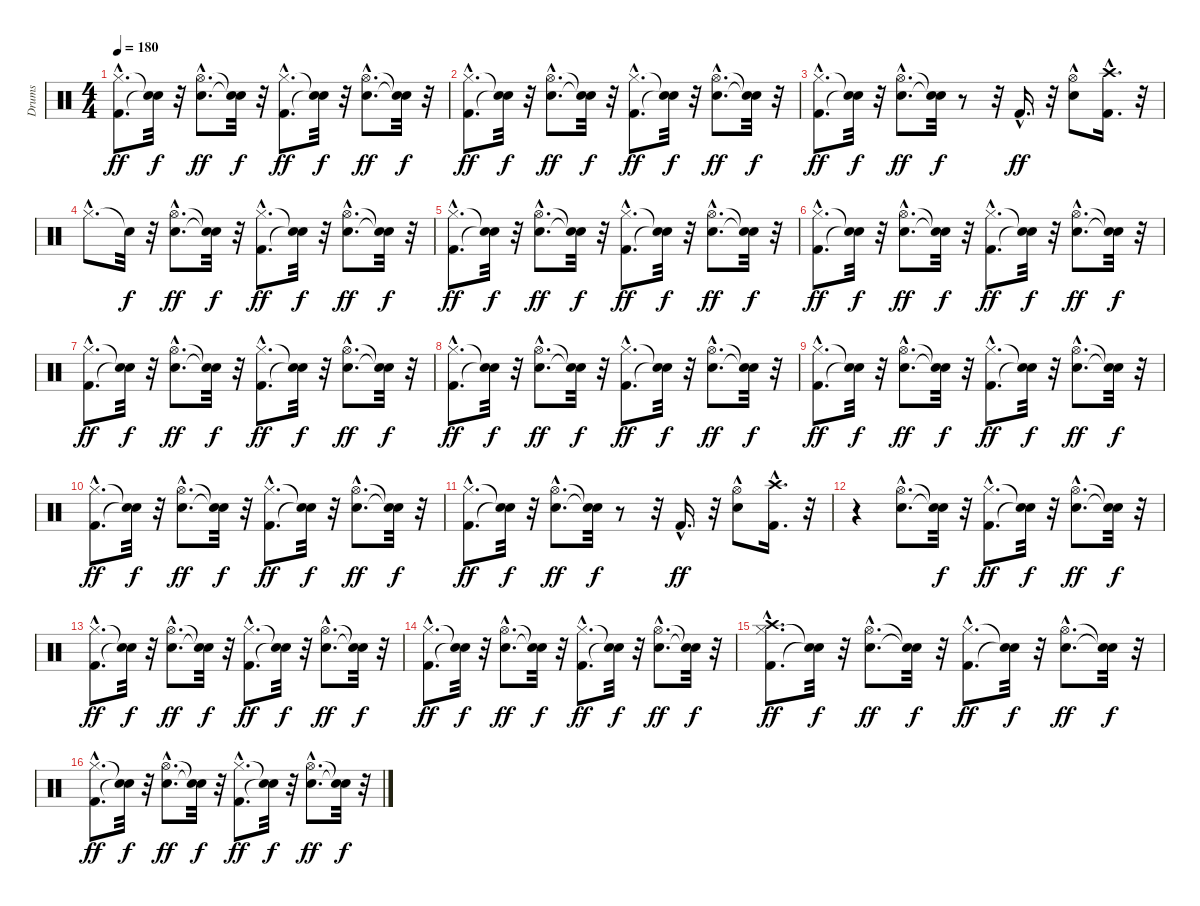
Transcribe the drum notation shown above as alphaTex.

\track ("Drums" "Drums") {instrument percussion}
\staff {score}
\articulation defaults
\ts (4 4)
\tempo 180
\clef neutral
\ks c
("Kick (hit) 2"{hac} "Hi-Hat (closed)"{hac}).8{d dy ff} ("Snare (hit)"{t} "Snare (hit)"{t}).32{dy f} r.32 ("Snare (hit) 2"{hac} "Hi-Hat (open)"{hac}).8{d dy ff} ("Snare (hit)"{t} "Snare (hit)"{t}).32{dy f} r.32 ("Kick (hit) 2"{hac} "Hi-Hat (closed)"{hac}).8{d dy ff} ("Snare (hit)"{t} "Snare (hit)"{t}).32{dy f} r.32 ("Snare (hit) 2"{hac} "Hi-Hat (open)"{hac}).8{d dy ff} ("Snare (hit)"{t} "Snare (hit)"{t}).32{dy f} r.32 |
("Kick (hit) 2"{hac} "Hi-Hat (closed)"{hac}).8{d dy ff} ("Snare (hit)"{t} "Snare (hit)"{t}).32{dy f} r.32 ("Snare (hit) 2"{hac} "Hi-Hat (open)"{hac}).8{d dy ff} ("Snare (hit)"{t} "Snare (hit)"{t}).32{dy f} r.32 ("Kick (hit) 2"{hac} "Hi-Hat (closed)"{hac}).8{d dy ff} ("Snare (hit)"{t} "Snare (hit)"{t}).32{dy f} r.32 ("Snare (hit) 2"{hac} "Hi-Hat (open)"{hac}).8{d dy ff} ("Snare (hit)"{t} "Snare (hit)"{t}).32{dy f} r.32 |
("Kick (hit) 2"{hac} "Hi-Hat (closed)"{hac}).8{d dy ff} ("Snare (hit)"{t} "Snare (hit)"{t}).32{dy f} r.32 ("Snare (hit) 2"{hac} "Hi-Hat (open)"{hac}).8{d dy ff} ("Snare (hit)"{t} "Snare (hit)"{t}).32{dy f} r.8 r.32 "Kick (hit) 2"{hac}.16{d dy ff} r.32 ("Snare (hit) 2"{hac} "Hi-Hat (open)"{hac}).8 ("Kick (hit) 2"{hac} "Crash high (hit)"{hac}).16{d} r.32 |
"Hi-Hat (closed)"{hac}.8{d} "Snare (hit)"{t}.32{dy f} r.32 ("Snare (hit) 2"{hac} "Hi-Hat (open)"{hac}).8{d dy ff} ("Snare (hit)"{t} "Snare (hit)"{t}).32{dy f} r.32 ("Kick (hit) 2"{hac} "Hi-Hat (closed)"{hac}).8{d dy ff} ("Snare (hit)"{t} "Snare (hit)"{t}).32{dy f} r.32 ("Snare (hit) 2"{hac} "Hi-Hat (open)"{hac}).8{d dy ff} ("Snare (hit)"{t} "Snare (hit)"{t}).32{dy f} r.32 |
("Kick (hit) 2"{hac} "Hi-Hat (closed)"{hac}).8{d dy ff} ("Snare (hit)"{t} "Snare (hit)"{t}).32{dy f} r.32 ("Snare (hit) 2"{hac} "Hi-Hat (open)"{hac}).8{d dy ff} ("Snare (hit)"{t} "Snare (hit)"{t}).32{dy f} r.32 ("Kick (hit) 2"{hac} "Hi-Hat (closed)"{hac}).8{d dy ff} ("Snare (hit)"{t} "Snare (hit)"{t}).32{dy f} r.32 ("Snare (hit) 2"{hac} "Hi-Hat (open)"{hac}).8{d dy ff} ("Snare (hit)"{t} "Snare (hit)"{t}).32{dy f} r.32 |
("Kick (hit) 2"{hac} "Hi-Hat (closed)"{hac}).8{d dy ff} ("Snare (hit)"{t} "Snare (hit)"{t}).32{dy f} r.32 ("Snare (hit) 2"{hac} "Hi-Hat (open)"{hac}).8{d dy ff} ("Snare (hit)"{t} "Snare (hit)"{t}).32{dy f} r.32 ("Kick (hit) 2"{hac} "Hi-Hat (closed)"{hac}).8{d dy ff} ("Snare (hit)"{t} "Snare (hit)"{t}).32{dy f} r.32 ("Snare (hit) 2"{hac} "Hi-Hat (open)"{hac}).8{d dy ff} ("Snare (hit)"{t} "Snare (hit)"{t}).32{dy f} r.32 |
("Kick (hit) 2"{hac} "Hi-Hat (closed)"{hac}).8{d dy ff} ("Snare (hit)"{t} "Snare (hit)"{t}).32{dy f} r.32 ("Snare (hit) 2"{hac} "Hi-Hat (open)"{hac}).8{d dy ff} ("Snare (hit)"{t} "Snare (hit)"{t}).32{dy f} r.32 ("Kick (hit) 2"{hac} "Hi-Hat (closed)"{hac}).8{d dy ff} ("Snare (hit)"{t} "Snare (hit)"{t}).32{dy f} r.32 ("Snare (hit) 2"{hac} "Hi-Hat (open)"{hac}).8{d dy ff} ("Snare (hit)"{t} "Snare (hit)"{t}).32{dy f} r.32 |
("Kick (hit) 2"{hac} "Hi-Hat (closed)"{hac}).8{d dy ff} ("Snare (hit)"{t} "Snare (hit)"{t}).32{dy f} r.32 ("Snare (hit) 2"{hac} "Hi-Hat (open)"{hac}).8{d dy ff} ("Snare (hit)"{t} "Snare (hit)"{t}).32{dy f} r.32 ("Kick (hit) 2"{hac} "Hi-Hat (closed)"{hac}).8{d dy ff} ("Snare (hit)"{t} "Snare (hit)"{t}).32{dy f} r.32 ("Snare (hit) 2"{hac} "Hi-Hat (open)"{hac}).8{d dy ff} ("Snare (hit)"{t} "Snare (hit)"{t}).32{dy f} r.32 |
("Kick (hit) 2"{hac} "Hi-Hat (closed)"{hac}).8{d dy ff} ("Snare (hit)"{t} "Snare (hit)"{t}).32{dy f} r.32 ("Snare (hit) 2"{hac} "Hi-Hat (open)"{hac}).8{d dy ff} ("Snare (hit)"{t} "Snare (hit)"{t}).32{dy f} r.32 ("Kick (hit) 2"{hac} "Hi-Hat (closed)"{hac}).8{d dy ff} ("Snare (hit)"{t} "Snare (hit)"{t}).32{dy f} r.32 ("Snare (hit) 2"{hac} "Hi-Hat (open)"{hac}).8{d dy ff} ("Snare (hit)"{t} "Snare (hit)"{t}).32{dy f} r.32 |
("Kick (hit) 2"{hac} "Hi-Hat (closed)"{hac}).8{d dy ff} ("Snare (hit)"{t} "Snare (hit)"{t}).32{dy f} r.32 ("Snare (hit) 2"{hac} "Hi-Hat (open)"{hac}).8{d dy ff} ("Snare (hit)"{t} "Snare (hit)"{t}).32{dy f} r.32 ("Kick (hit) 2"{hac} "Hi-Hat (closed)"{hac}).8{d dy ff} ("Snare (hit)"{t} "Snare (hit)"{t}).32{dy f} r.32 ("Snare (hit) 2"{hac} "Hi-Hat (open)"{hac}).8{d dy ff} ("Snare (hit)"{t} "Snare (hit)"{t}).32{dy f} r.32 |
("Kick (hit) 2"{hac} "Hi-Hat (closed)"{hac}).8{d dy ff} ("Snare (hit)"{t} "Snare (hit)"{t}).32{dy f} r.32 ("Snare (hit) 2"{hac} "Hi-Hat (open)"{hac}).8{d dy ff} ("Snare (hit)"{t} "Snare (hit)"{t}).32{dy f} r.8 r.32 "Kick (hit) 2"{hac}.16{d dy ff} r.32 ("Snare (hit) 2"{hac} "Hi-Hat (open)"{hac}).8 ("Kick (hit) 2"{hac} "Crash high (hit)"{hac}).16{d} r.32 |
r.4 ("Snare (hit) 2"{hac} "Hi-Hat (open)"{hac}).8{d} ("Snare (hit)"{t} "Snare (hit)"{t}).32{dy f} r.32 ("Kick (hit) 2"{hac} "Hi-Hat (closed)"{hac}).8{d dy ff} ("Snare (hit)"{t} "Snare (hit)"{t}).32{dy f} r.32 ("Snare (hit) 2"{hac} "Hi-Hat (open)"{hac}).8{d dy ff} ("Snare (hit)"{t} "Snare (hit)"{t}).32{dy f} r.32 |
("Kick (hit) 2"{hac} "Hi-Hat (closed)"{hac}).8{d dy ff} ("Snare (hit)"{t} "Snare (hit)"{t}).32{dy f} r.32 ("Snare (hit) 2"{hac} "Hi-Hat (open)"{hac}).8{d dy ff} ("Snare (hit)"{t} "Snare (hit)"{t}).32{dy f} r.32 ("Kick (hit) 2"{hac} "Hi-Hat (closed)"{hac}).8{d dy ff} ("Snare (hit)"{t} "Snare (hit)"{t}).32{dy f} r.32 ("Snare (hit) 2"{hac} "Hi-Hat (open)"{hac}).8{d dy ff} ("Snare (hit)"{t} "Snare (hit)"{t}).32{dy f} r.32 |
("Kick (hit) 2"{hac} "Hi-Hat (closed)"{hac}).8{d dy ff} ("Snare (hit)"{t} "Snare (hit)"{t}).32{dy f} r.32 ("Snare (hit) 2"{hac} "Hi-Hat (open)"{hac}).8{d dy ff} ("Snare (hit)"{t} "Snare (hit)"{t}).32{dy f} r.32 ("Kick (hit) 2"{hac} "Hi-Hat (closed)"{hac}).8{d dy ff} ("Snare (hit)"{t} "Snare (hit)"{t}).32{dy f} r.32 ("Snare (hit) 2"{hac} "Hi-Hat (open)"{hac}).8{d dy ff} ("Snare (hit)"{t} "Snare (hit)"{t}).32{dy f} r.32 |
("Kick (hit) 2"{hac} "Hi-Hat (closed)"{hac} "Crash high (hit)"{hac}).8{d dy ff} ("Snare (hit)"{t} "Snare (hit)"{t}).32{dy f} r.32 ("Snare (hit) 2"{hac} "Hi-Hat (open)"{hac}).8{d dy ff} ("Snare (hit)"{t} "Snare (hit)"{t}).32{dy f} r.32 ("Kick (hit) 2"{hac} "Hi-Hat (closed)"{hac}).8{d dy ff} ("Snare (hit)"{t} "Snare (hit)"{t}).32{dy f} r.32 ("Snare (hit) 2"{hac} "Hi-Hat (open)"{hac}).8{d dy ff} ("Snare (hit)"{t} "Snare (hit)"{t}).32{dy f} r.32 |
("Kick (hit) 2"{hac} "Hi-Hat (closed)"{hac}).8{d dy ff} ("Snare (hit)"{t} "Snare (hit)"{t}).32{dy f} r.32 ("Snare (hit) 2"{hac} "Hi-Hat (open)"{hac}).8{d dy ff} ("Snare (hit)"{t} "Snare (hit)"{t}).32{dy f} r.32 ("Kick (hit) 2"{hac} "Hi-Hat (closed)"{hac}).8{d dy ff} ("Snare (hit)"{t} "Snare (hit)"{t}).32{dy f} r.32 ("Snare (hit) 2"{hac} "Hi-Hat (open)"{hac}).8{d dy ff} ("Snare (hit)"{t} "Snare (hit)"{t}).32{dy f} r.32
